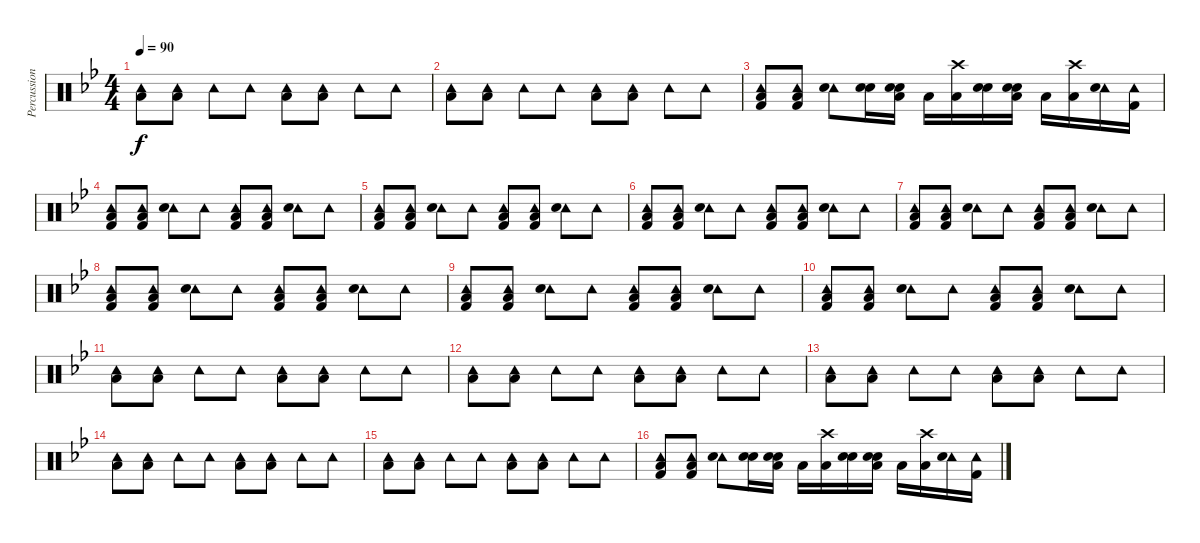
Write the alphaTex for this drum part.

\track ("Percussion" "Percussion") {instrument percussion}
\staff {score}
\articulation defaults
\ts (4 4)
\tempo 90
\clef neutral
\ks bb
("Tambourine (hit)" "Low Tom (hit)").8{dy f volume 10} ("Tambourine (hit)" "Low Tom (hit)").8 "Tambourine (hit)".8 "Tambourine (hit)".8 ("Tambourine (hit)" "Low Tom (hit)").8 ("Tambourine (hit)" "Low Tom (hit)").8 "Tambourine (hit)".8 "Tambourine (hit)".8 |
("Tambourine (hit)" "Low Tom (hit)").8{volume 10} ("Tambourine (hit)" "Low Tom (hit)").8 "Tambourine (hit)".8 "Tambourine (hit)".8 ("Tambourine (hit)" "Low Tom (hit)").8 ("Tambourine (hit)" "Low Tom (hit)").8 "Tambourine (hit)".8 "Tambourine (hit)".8 |
("Tambourine (hit)" "Kick (hit) 2" "Low Tom (hit)").8 ("Tambourine (hit)" "Kick (hit) 2" "Low Tom (hit)").8 ("Tambourine (hit)" "Electric Snare (hit)").8 ("Hand Clap (hit)" "Electric Snare (hit)").16 ("Hand Clap (hit)" "Electric Snare (hit)" "Low Tom (hit)").16 "Low Floor Tom (hit)".16 ("Crash high (hit)" "Low Tom (hit)").16 ("Hand Clap (hit)" "Electric Snare (hit)").16 ("Hand Clap (hit)" "Electric Snare (hit)" "Low Tom (hit)").16 "Low Floor Tom (hit)".16 ("Crash high (hit)" "Low Tom (hit)").16 ("Tambourine (hit)" "Electric Snare (hit)").16 ("Tambourine (hit)" "Kick (hit) 2").16 |
("Tambourine (hit)" "Kick (hit) 2" "Low Tom (hit)").8 ("Tambourine (hit)" "Kick (hit) 2" "Low Tom (hit)").8 ("Tambourine (hit)" "Electric Snare (hit)").8 "Tambourine (hit)".8 ("Tambourine (hit)" "Kick (hit) 2" "Low Tom (hit)").8 ("Tambourine (hit)" "Kick (hit) 2" "Low Tom (hit)").8 ("Tambourine (hit)" "Electric Snare (hit)").8 "Tambourine (hit)".8 |
("Tambourine (hit)" "Kick (hit) 2" "Low Tom (hit)").8 ("Tambourine (hit)" "Kick (hit) 2" "Low Tom (hit)").8 ("Tambourine (hit)" "Electric Snare (hit)").8 "Tambourine (hit)".8 ("Tambourine (hit)" "Kick (hit) 2" "Low Tom (hit)").8 ("Tambourine (hit)" "Kick (hit) 2" "Low Tom (hit)").8 ("Tambourine (hit)" "Electric Snare (hit)").8 "Tambourine (hit)".8 |
("Tambourine (hit)" "Kick (hit) 2" "Low Tom (hit)").8 ("Tambourine (hit)" "Kick (hit) 2" "Low Tom (hit)").8 ("Tambourine (hit)" "Electric Snare (hit)").8 "Tambourine (hit)".8 ("Tambourine (hit)" "Kick (hit) 2" "Low Tom (hit)").8 ("Tambourine (hit)" "Kick (hit) 2" "Low Tom (hit)").8 ("Tambourine (hit)" "Electric Snare (hit)").8 "Tambourine (hit)".8 |
("Tambourine (hit)" "Kick (hit) 2" "Low Tom (hit)").8 ("Tambourine (hit)" "Kick (hit) 2" "Low Tom (hit)").8 ("Tambourine (hit)" "Electric Snare (hit)").8 "Tambourine (hit)".8 ("Tambourine (hit)" "Kick (hit) 2" "Low Tom (hit)").8 ("Tambourine (hit)" "Kick (hit) 2" "Low Tom (hit)").8 ("Tambourine (hit)" "Electric Snare (hit)").8 "Tambourine (hit)".8 |
("Tambourine (hit)" "Kick (hit) 2" "Low Tom (hit)").8 ("Tambourine (hit)" "Kick (hit) 2" "Low Tom (hit)").8 ("Tambourine (hit)" "Electric Snare (hit)").8 "Tambourine (hit)".8 ("Tambourine (hit)" "Kick (hit) 2" "Low Tom (hit)").8 ("Tambourine (hit)" "Kick (hit) 2" "Low Tom (hit)").8 ("Tambourine (hit)" "Electric Snare (hit)").8 "Tambourine (hit)".8 |
("Tambourine (hit)" "Kick (hit) 2" "Low Tom (hit)").8 ("Tambourine (hit)" "Kick (hit) 2" "Low Tom (hit)").8 ("Tambourine (hit)" "Electric Snare (hit)").8 "Tambourine (hit)".8 ("Tambourine (hit)" "Kick (hit) 2" "Low Tom (hit)").8 ("Tambourine (hit)" "Kick (hit) 2" "Low Tom (hit)").8 ("Tambourine (hit)" "Electric Snare (hit)").8 "Tambourine (hit)".8 |
("Tambourine (hit)" "Kick (hit) 2" "Low Tom (hit)").8 ("Tambourine (hit)" "Kick (hit) 2" "Low Tom (hit)").8 ("Tambourine (hit)" "Electric Snare (hit)").8 "Tambourine (hit)".8 ("Tambourine (hit)" "Kick (hit) 2" "Low Tom (hit)").8 ("Tambourine (hit)" "Kick (hit) 2" "Low Tom (hit)").8 ("Tambourine (hit)" "Electric Snare (hit)").8 "Tambourine (hit)".8 |
("Tambourine (hit)" "Low Tom (hit)").8{volume 10} ("Tambourine (hit)" "Low Tom (hit)").8 "Tambourine (hit)".8 "Tambourine (hit)".8 ("Tambourine (hit)" "Low Tom (hit)").8 ("Tambourine (hit)" "Low Tom (hit)").8 "Tambourine (hit)".8 "Tambourine (hit)".8 |
("Tambourine (hit)" "Low Tom (hit)").8 ("Tambourine (hit)" "Low Tom (hit)").8 "Tambourine (hit)".8 "Tambourine (hit)".8 ("Tambourine (hit)" "Low Tom (hit)").8 ("Tambourine (hit)" "Low Tom (hit)").8 "Tambourine (hit)".8 "Tambourine (hit)".8 |
("Tambourine (hit)" "Low Tom (hit)").8{volume 10} ("Tambourine (hit)" "Low Tom (hit)").8 "Tambourine (hit)".8 "Tambourine (hit)".8 ("Tambourine (hit)" "Low Tom (hit)").8 ("Tambourine (hit)" "Low Tom (hit)").8 "Tambourine (hit)".8 "Tambourine (hit)".8 |
("Tambourine (hit)" "Low Tom (hit)").8{volume 10} ("Tambourine (hit)" "Low Tom (hit)").8 "Tambourine (hit)".8 "Tambourine (hit)".8 ("Tambourine (hit)" "Low Tom (hit)").8 ("Tambourine (hit)" "Low Tom (hit)").8 "Tambourine (hit)".8 "Tambourine (hit)".8 |
("Tambourine (hit)" "Low Tom (hit)").8{volume 10} ("Tambourine (hit)" "Low Tom (hit)").8 "Tambourine (hit)".8 "Tambourine (hit)".8 ("Tambourine (hit)" "Low Tom (hit)").8 ("Tambourine (hit)" "Low Tom (hit)").8 "Tambourine (hit)".8 "Tambourine (hit)".8 |
("Tambourine (hit)" "Kick (hit) 2" "Low Tom (hit)").8 ("Tambourine (hit)" "Kick (hit) 2" "Low Tom (hit)").8 ("Tambourine (hit)" "Electric Snare (hit)").8 ("Hand Clap (hit)" "Electric Snare (hit)").16 ("Hand Clap (hit)" "Electric Snare (hit)" "Low Tom (hit)").16 "Low Floor Tom (hit)".16 ("Crash high (hit)" "Low Tom (hit)").16 ("Hand Clap (hit)" "Electric Snare (hit)").16 ("Hand Clap (hit)" "Electric Snare (hit)" "Low Tom (hit)").16 "Low Floor Tom (hit)".16 ("Crash high (hit)" "Low Tom (hit)").16 ("Tambourine (hit)" "Electric Snare (hit)").16 ("Tambourine (hit)" "Kick (hit) 2").16
